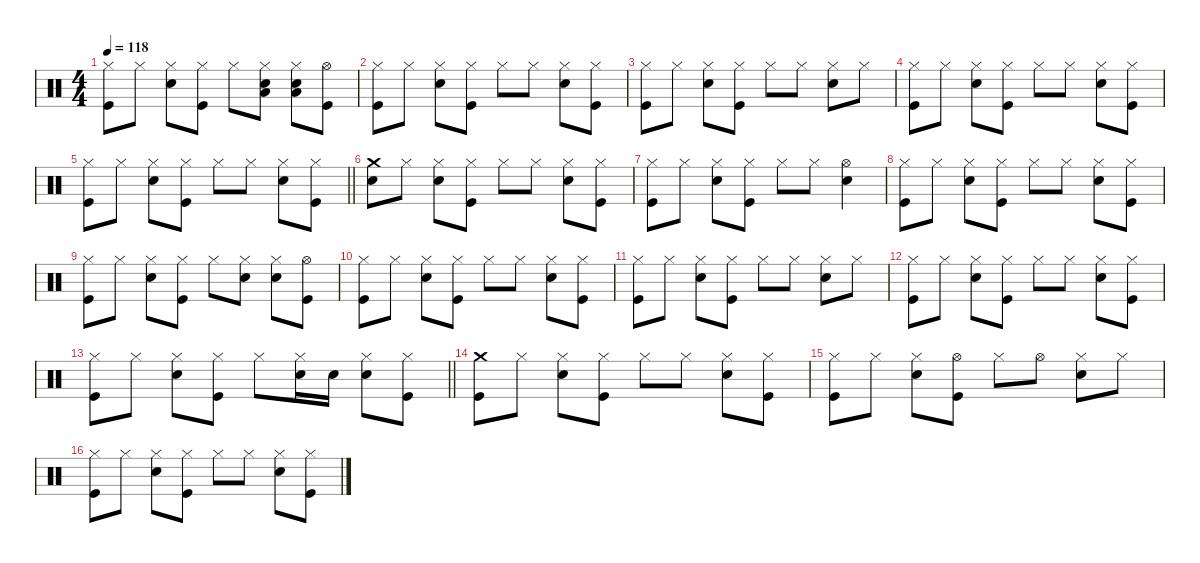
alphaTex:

\defaultSystemsLayout 4
\hideDynamics
\bracketExtendMode nobrackets
\singleTrackTrackNamePolicy hidden
\multiTrackTrackNamePolicy hidden
\firstSystemTrackNameMode fullname
\otherSystemsTrackNameOrientation horizontal
\track ("Drums" "drm.") {instrument percussion}
\staff {score}
\articulation defaults
\ts (4 4)
\tempo 118
\clef neutral
\ks c
("Hi-Hat (closed)" "Kick (hit)").8{dy f beam Down} "Hi-Hat (closed)".8{beam Down} ("Hi-Hat (closed)" "Snare (hit) 2").8{beam Down} ("Hi-Hat (closed)" "Kick (hit)").8{beam Down} "Hi-Hat (closed)".8{beam Down} ("Hi-Hat (closed)" "Snare (hit) 2" "Low Floor Tom (hit)").8{beam Down} ("Hi-Hat (closed)" "Snare (hit) 2" "Low Floor Tom (hit)").8{beam Down} ("Hi-Hat (open)" "Kick (hit)").8{beam Down} |
("Hi-Hat (closed)" "Kick (hit)").8{beam Down} "Hi-Hat (closed)".8{beam Down} ("Hi-Hat (closed)" "Snare (hit) 2").8{beam Down} ("Hi-Hat (closed)" "Kick (hit)").8{beam Down} "Hi-Hat (closed)".8{beam Down} "Hi-Hat (closed)".8{beam Down} ("Hi-Hat (closed)" "Snare (hit) 2").8{beam Down} ("Hi-Hat (closed)" "Kick (hit)").8{beam Down} |
("Hi-Hat (closed)" "Kick (hit)").8{beam Down} "Hi-Hat (closed)".8{beam Down} ("Hi-Hat (closed)" "Snare (hit) 2").8{beam Down} ("Hi-Hat (closed)" "Kick (hit)").8{beam Down} "Hi-Hat (closed)".8{beam Down} "Hi-Hat (closed)".8{beam Down} ("Hi-Hat (closed)" "Snare (hit) 2").8{beam Down} "Hi-Hat (closed)".8{beam Down} |
("Hi-Hat (closed)" "Kick (hit)").8{beam Down} "Hi-Hat (closed)".8{beam Down} ("Hi-Hat (closed)" "Snare (hit) 2").8{beam Down} ("Hi-Hat (closed)" "Kick (hit)").8{beam Down} "Hi-Hat (closed)".8{beam Down} "Hi-Hat (closed)".8{beam Down} ("Hi-Hat (closed)" "Snare (hit) 2").8{beam Down} ("Hi-Hat (closed)" "Kick (hit)").8{beam Down} |
\barLineRight lightlight
("Hi-Hat (closed)" "Kick (hit)").8{beam Down} "Hi-Hat (closed)".8{beam Down} ("Hi-Hat (closed)" "Snare (hit) 2").8{beam Down} ("Hi-Hat (closed)" "Kick (hit)").8{beam Down} "Hi-Hat (closed)".8{beam Down} "Hi-Hat (closed)".8{beam Down} ("Hi-Hat (closed)" "Snare (hit) 2").8{beam Down} ("Hi-Hat (closed)" "Kick (hit)").8{beam Down} |
("Crash medium (hit)" "Snare (hit) 2").8{beam Down} "Hi-Hat (closed)".8{beam Down} ("Hi-Hat (closed)" "Snare (hit) 2").8{beam Down} ("Hi-Hat (closed)" "Kick (hit)").8{beam Down} "Hi-Hat (closed)".8{beam Down} "Hi-Hat (closed)".8{beam Down} ("Hi-Hat (closed)" "Snare (hit) 2").8{beam Down} ("Hi-Hat (closed)" "Kick (hit)").8{beam Down} |
("Hi-Hat (closed)" "Kick (hit)").8{beam Down} "Hi-Hat (closed)".8{beam Down} ("Hi-Hat (closed)" "Snare (hit) 2").8{beam Down} ("Hi-Hat (closed)" "Kick (hit)").8{beam Down} "Hi-Hat (closed)".8{beam Down} "Hi-Hat (closed)".8{beam Down} ("Hi-Hat (open)" "Snare (hit) 2").4{beam Down} |
("Hi-Hat (closed)" "Kick (hit)").8{beam Down} "Hi-Hat (closed)".8{beam Down} ("Hi-Hat (closed)" "Snare (hit) 2").8{beam Down} ("Hi-Hat (closed)" "Kick (hit)").8{beam Down} "Hi-Hat (closed)".8{beam Down} "Hi-Hat (closed)".8{beam Down} ("Hi-Hat (closed)" "Snare (hit) 2").8{beam Down} ("Hi-Hat (closed)" "Kick (hit)").8{beam Down} |
("Hi-Hat (closed)" "Kick (hit)").8{beam Down} "Hi-Hat (closed)".8{beam Down} ("Hi-Hat (closed)" "Snare (hit) 2").8{beam Down} ("Hi-Hat (closed)" "Kick (hit)").8{beam Down} "Hi-Hat (closed)".8{beam Down} ("Hi-Hat (closed)" "Snare (hit) 2").8{beam Down} ("Hi-Hat (closed)" "Snare (hit) 2").8{beam Down} ("Hi-Hat (open)" "Kick (hit)").8{beam Down} |
("Hi-Hat (closed)" "Kick (hit)").8{beam Down} "Hi-Hat (closed)".8{beam Down} ("Hi-Hat (closed)" "Snare (hit) 2").8{beam Down} ("Hi-Hat (closed)" "Kick (hit)").8{beam Down} "Hi-Hat (closed)".8{beam Down} "Hi-Hat (closed)".8{beam Down} ("Hi-Hat (closed)" "Snare (hit) 2").8{beam Down} ("Hi-Hat (closed)" "Kick (hit)").8{beam Down} |
("Hi-Hat (closed)" "Kick (hit)").8{beam Down} "Hi-Hat (closed)".8{beam Down} ("Hi-Hat (closed)" "Snare (hit) 2").8{beam Down} ("Hi-Hat (closed)" "Kick (hit)").8{beam Down} "Hi-Hat (closed)".8{beam Down} "Hi-Hat (closed)".8{beam Down} ("Hi-Hat (closed)" "Snare (hit) 2").8{beam Down} "Hi-Hat (closed)".8{beam Down} |
("Hi-Hat (closed)" "Kick (hit)").8{beam Down} "Hi-Hat (closed)".8{beam Down} ("Hi-Hat (closed)" "Snare (hit) 2").8{beam Down} ("Hi-Hat (closed)" "Kick (hit)").8{beam Down} "Hi-Hat (closed)".8{beam Down} "Hi-Hat (closed)".8{beam Down} ("Hi-Hat (closed)" "Snare (hit) 2").8{beam Down} ("Hi-Hat (closed)" "Kick (hit)").8{beam Down} |
\barLineRight lightlight
("Hi-Hat (closed)" "Kick (hit)").8{beam Down} "Hi-Hat (closed)".8{beam Down} ("Hi-Hat (closed)" "Snare (hit) 2").8{beam Down} ("Hi-Hat (closed)" "Kick (hit)").8{beam Down} "Hi-Hat (closed)".8{beam Down} ("Hi-Hat (closed)" "Snare (hit) 2").16{beam Down} "Snare (hit) 2".16{dy mf beam Down} ("Hi-Hat (closed)" "Snare (hit) 2").8{dy f beam Down} ("Hi-Hat (closed)" "Kick (hit)").8{beam Down} |
("Crash medium (hit)" "Kick (hit)").8{beam Down} "Hi-Hat (closed)".8{beam Down} ("Hi-Hat (closed)" "Snare (hit) 2").8{beam Down} ("Hi-Hat (closed)" "Kick (hit)").8{beam Down} "Hi-Hat (closed)".8{beam Down} "Hi-Hat (closed)".8{beam Down} ("Hi-Hat (closed)" "Snare (hit) 2").8{beam Down} ("Hi-Hat (closed)" "Kick (hit)").8{beam Down} |
("Hi-Hat (closed)" "Kick (hit)").8{beam Down} "Hi-Hat (closed)".8{beam Down} ("Hi-Hat (closed)" "Snare (hit) 2").8{beam Down} ("Hi-Hat (open)" "Kick (hit)").8{beam Down} "Hi-Hat (closed)".8{beam Down} "Hi-Hat (open)".8{beam Down} ("Hi-Hat (closed)" "Snare (hit) 2").8{beam Down} "Hi-Hat (closed)".8{beam Down} |
("Hi-Hat (closed)" "Kick (hit)").8{beam Down} "Hi-Hat (closed)".8{beam Down} ("Hi-Hat (closed)" "Snare (hit) 2").8{beam Down} ("Hi-Hat (closed)" "Kick (hit)").8{beam Down} "Hi-Hat (closed)".8{beam Down} "Hi-Hat (closed)".8{beam Down} ("Hi-Hat (closed)" "Snare (hit) 2").8{beam Down} ("Hi-Hat (closed)" "Kick (hit)").8{beam Down}
